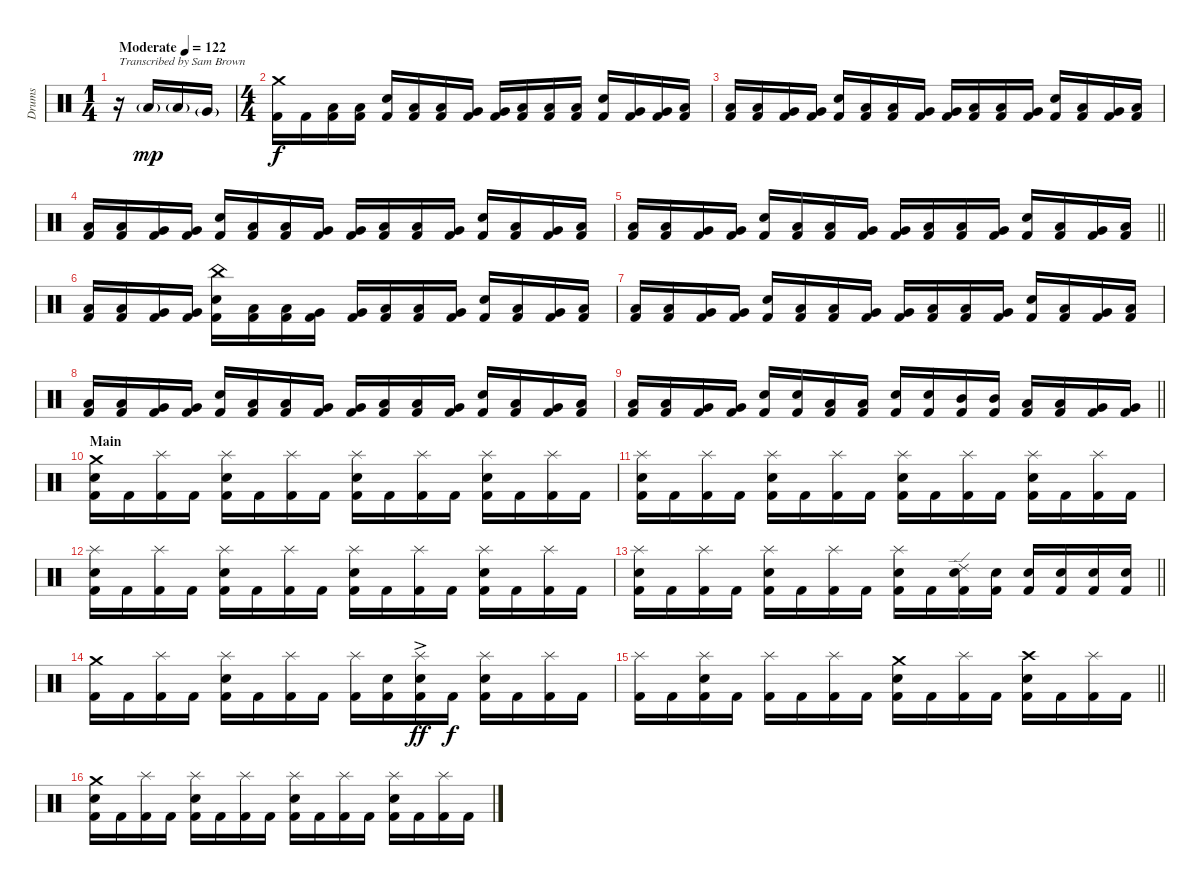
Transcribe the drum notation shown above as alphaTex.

\track ("Drums" "Drums") {instrument percussion}
\staff {score}
\articulation defaults
\ts (1 4)
\tempo (122 "Moderate")
\clef neutral
\ks c
r.16{txt "Transcribed by Sam Brown" dy mp} "Low Floor Tom (hit)"{g}.16 "Low Tom (hit)"{g}.16 "Very Low Tom (hit)"{g}.16 |
\ts (4 4)
("Kick (hit) 2" "Crash medium (hit)").16{dy f} "Kick (hit) 2".16 ("Kick (hit) 2" "Low Tom (hit)").16 ("Kick (hit) 2" "Low Tom (hit)").16 ("Kick (hit) 2" "Snare (hit) 2").16 ("Kick (hit) 2" "Low Tom (hit)").16 ("Kick (hit) 2" "Low Tom (hit)").16 ("Kick (hit) 2" "Very Low Tom (hit)").16 ("Kick (hit) 2" "Very Low Tom (hit)").16 ("Kick (hit) 2" "Low Tom (hit)").16 ("Kick (hit) 2" "Low Tom (hit)").16 ("Kick (hit) 2" "Low Tom (hit)").16 ("Kick (hit) 2" "Snare (hit) 2").16 ("Kick (hit) 2" "Very Low Tom (hit)").16 ("Kick (hit) 2" "Very Low Tom (hit)").16 ("Kick (hit) 2" "Low Floor Tom (hit)").16 |
("Kick (hit) 2" "Low Tom (hit)").16 ("Kick (hit) 2" "Low Tom (hit)").16 ("Kick (hit) 2" "Very Low Tom (hit)").16 ("Kick (hit) 2" "Very Low Tom (hit)").16 ("Kick (hit) 2" "Snare (hit) 2").16 ("Kick (hit) 2" "Low Tom (hit)").16 ("Kick (hit) 2" "Low Tom (hit)").16 ("Kick (hit) 2" "Very Low Tom (hit)").16 ("Kick (hit) 2" "Very Low Tom (hit)").16 ("Kick (hit) 2" "Low Tom (hit)").16 ("Kick (hit) 2" "Low Tom (hit)").16 ("Kick (hit) 2" "Very Low Tom (hit)").16 ("Kick (hit) 2" "Snare (hit) 2").16 ("Kick (hit) 2" "Low Tom (hit)").16 ("Kick (hit) 2" "Very Low Tom (hit)").16 ("Kick (hit) 2" "Low Floor Tom (hit)").16 |
("Kick (hit) 2" "Low Tom (hit)").16 ("Kick (hit) 2" "Low Tom (hit)").16 ("Kick (hit) 2" "Very Low Tom (hit)").16 ("Kick (hit) 2" "Very Low Tom (hit)").16 ("Kick (hit) 2" "Snare (hit) 2").16 ("Kick (hit) 2" "Low Tom (hit)").16 ("Kick (hit) 2" "Low Tom (hit)").16 ("Kick (hit) 2" "Very Low Tom (hit)").16 ("Kick (hit) 2" "Very Low Tom (hit)").16 ("Kick (hit) 2" "Low Tom (hit)").16 ("Kick (hit) 2" "Low Tom (hit)").16 ("Kick (hit) 2" "Very Low Tom (hit)").16 ("Kick (hit) 2" "Snare (hit) 2").16 ("Kick (hit) 2" "Low Tom (hit)").16 ("Kick (hit) 2" "Very Low Tom (hit)").16 ("Kick (hit) 2" "Low Floor Tom (hit)").16 |
\barLineRight lightlight
("Kick (hit) 2" "Low Tom (hit)").16 ("Kick (hit) 2" "Low Tom (hit)").16 ("Kick (hit) 2" "Very Low Tom (hit)").16 ("Kick (hit) 2" "Very Low Tom (hit)").16 ("Kick (hit) 2" "Snare (hit) 2").16 ("Kick (hit) 2" "Low Tom (hit)").16 ("Kick (hit) 2" "Low Tom (hit)").16 ("Kick (hit) 2" "Very Low Tom (hit)").16 ("Kick (hit) 2" "Very Low Tom (hit)").16 ("Kick (hit) 2" "Low Tom (hit)").16 ("Kick (hit) 2" "Low Tom (hit)").16 ("Kick (hit) 2" "Very Low Tom (hit)").16 ("Kick (hit) 2" "Snare (hit) 2").16 ("Kick (hit) 2" "Low Tom (hit)").16 ("Kick (hit) 2" "Very Low Tom (hit)").16 ("Kick (hit) 2" "Low Floor Tom (hit)").16 |
\section ("" "")
("Kick (hit) 2" "Low Tom (hit)").16 ("Kick (hit) 2" "Low Tom (hit)").16 ("Kick (hit) 2" "Very Low Tom (hit)").16 ("Kick (hit) 2" "Very Low Tom (hit)").16 ("Kick (hit) 2" "Snare (hit) 2" "China (hit)").16 ("Kick (hit) 2" "Low Tom (hit)").16 ("Kick (hit) 2" "Low Tom (hit)").16 ("Kick (hit) 2" "Very Low Tom (hit)").16 ("Kick (hit) 2" "Very Low Tom (hit)").16 ("Kick (hit) 2" "Low Tom (hit)").16 ("Kick (hit) 2" "Low Tom (hit)").16 ("Kick (hit) 2" "Very Low Tom (hit)").16 ("Kick (hit) 2" "Snare (hit) 2").16 ("Kick (hit) 2" "Low Tom (hit)").16 ("Kick (hit) 2" "Very Low Tom (hit)").16 ("Kick (hit) 2" "Low Floor Tom (hit)").16 |
("Kick (hit) 2" "Low Tom (hit)").16 ("Kick (hit) 2" "Low Tom (hit)").16 ("Kick (hit) 2" "Very Low Tom (hit)").16 ("Kick (hit) 2" "Very Low Tom (hit)").16 ("Kick (hit) 2" "Snare (hit) 2").16 ("Kick (hit) 2" "Low Tom (hit)").16 ("Kick (hit) 2" "Low Tom (hit)").16 ("Kick (hit) 2" "Very Low Tom (hit)").16 ("Kick (hit) 2" "Very Low Tom (hit)").16 ("Kick (hit) 2" "Low Tom (hit)").16 ("Kick (hit) 2" "Low Tom (hit)").16 ("Kick (hit) 2" "Very Low Tom (hit)").16 ("Kick (hit) 2" "Snare (hit) 2").16 ("Kick (hit) 2" "Low Tom (hit)").16 ("Kick (hit) 2" "Very Low Tom (hit)").16 ("Kick (hit) 2" "Low Floor Tom (hit)").16 |
("Kick (hit) 2" "Low Tom (hit)").16 ("Kick (hit) 2" "Low Tom (hit)").16 ("Kick (hit) 2" "Very Low Tom (hit)").16 ("Kick (hit) 2" "Very Low Tom (hit)").16 ("Kick (hit) 2" "Snare (hit) 2").16 ("Kick (hit) 2" "Low Tom (hit)").16 ("Kick (hit) 2" "Low Tom (hit)").16 ("Kick (hit) 2" "Very Low Tom (hit)").16 ("Kick (hit) 2" "Very Low Tom (hit)").16 ("Kick (hit) 2" "Low Tom (hit)").16 ("Kick (hit) 2" "Low Tom (hit)").16 ("Kick (hit) 2" "Very Low Tom (hit)").16 ("Kick (hit) 2" "Snare (hit) 2").16 ("Kick (hit) 2" "Low Tom (hit)").16 ("Kick (hit) 2" "Very Low Tom (hit)").16 ("Kick (hit) 2" "Low Floor Tom (hit)").16 |
\barLineRight lightlight
("Kick (hit) 2" "Low Tom (hit)").16 ("Kick (hit) 2" "Low Tom (hit)").16 ("Kick (hit) 2" "Very Low Tom (hit)").16 ("Kick (hit) 2" "Very Low Tom (hit)").16 ("Kick (hit) 2" "Snare (hit) 2").16 ("Kick (hit) 2" "Snare (hit) 2").16 ("Kick (hit) 2" "Low Floor Tom (hit)").16 ("Kick (hit) 2" "Low Floor Tom (hit)").16 ("Kick (hit) 2" "Snare (hit) 2").16 ("Kick (hit) 2" "Snare (hit) 2").16 ("Kick (hit) 2" "Mid Tom (hit)").16 ("Kick (hit) 2" "Mid Tom (hit)").16 ("Kick (hit) 2" "Low Tom (hit)").16 ("Kick (hit) 2" "Low Tom (hit)").16 ("Kick (hit) 2" "Very Low Tom (hit)").16 ("Kick (hit) 2" "Very Low Tom (hit)").16 |
\section ("" "Main")
("Kick (hit) 2" "Snare (hit) 2" "Crash medium (hit)").16 "Kick (hit) 2".16 ("Kick (hit) 2" "Splash (hit)").16 "Kick (hit) 2".16 ("Kick (hit) 2" "Snare (hit) 2" "Splash (hit)").16 "Kick (hit) 2".16 ("Kick (hit) 2" "Splash (hit)").16 "Kick (hit) 2".16 ("Kick (hit) 2" "Snare (hit) 2" "Splash (hit)").16 "Kick (hit) 2".16 ("Kick (hit) 2" "Splash (hit)").16 "Kick (hit) 2".16 ("Kick (hit) 2" "Snare (hit) 2" "Splash (hit)").16 "Kick (hit) 2".16 ("Kick (hit) 2" "Splash (hit)").16 "Kick (hit) 2".16 |
("Kick (hit) 2" "Snare (hit) 2" "Splash (hit)").16 "Kick (hit) 2".16 ("Kick (hit) 2" "Splash (hit)").16 "Kick (hit) 2".16 ("Kick (hit) 2" "Snare (hit) 2" "Splash (hit)").16 "Kick (hit) 2".16 ("Kick (hit) 2" "Splash (hit)").16 "Kick (hit) 2".16 ("Kick (hit) 2" "Snare (hit) 2" "Splash (hit)").16 "Kick (hit) 2".16 ("Kick (hit) 2" "Splash (hit)").16 "Kick (hit) 2".16 ("Kick (hit) 2" "Snare (hit) 2" "Splash (hit)").16 "Kick (hit) 2".16 ("Kick (hit) 2" "Splash (hit)").16 "Kick (hit) 2".16 |
("Kick (hit) 2" "Snare (hit) 2" "Splash (hit)").16 "Kick (hit) 2".16 ("Kick (hit) 2" "Splash (hit)").16 "Kick (hit) 2".16 ("Kick (hit) 2" "Snare (hit) 2" "Splash (hit)").16 "Kick (hit) 2".16 ("Kick (hit) 2" "Splash (hit)").16 "Kick (hit) 2".16 ("Kick (hit) 2" "Snare (hit) 2" "Splash (hit)").16 "Kick (hit) 2".16 ("Kick (hit) 2" "Splash (hit)").16 "Kick (hit) 2".16 ("Kick (hit) 2" "Snare (hit) 2" "Splash (hit)").16 "Kick (hit) 2".16 ("Kick (hit) 2" "Splash (hit)").16 "Kick (hit) 2".16 |
\barLineRight lightlight
("Kick (hit) 2" "Snare (hit) 2" "Splash (hit)").16 "Kick (hit) 2".16 ("Kick (hit) 2" "Splash (hit)").16 "Kick (hit) 2".16 ("Kick (hit) 2" "Snare (hit) 2" "Splash (hit)").16 "Kick (hit) 2".16 ("Kick (hit) 2" "Splash (hit)").16 "Kick (hit) 2".16 ("Kick (hit) 2" "Snare (hit) 2" "Splash (hit)").16 "Kick (hit) 2".16 ("Kick (hit) 2" "Snare (hit) 2" "Ride (edge) 2").16 ("Kick (hit) 2" "Snare (hit) 2").16 ("Kick (hit) 2" "Snare (hit) 2").16 ("Kick (hit) 2" "Snare (hit) 2").16 ("Kick (hit) 2" "Snare (hit) 2").16 ("Kick (hit) 2" "Snare (hit) 2").16 |
\section ("" "")
("Kick (hit) 2" "Crash medium (hit)").16 "Kick (hit) 2".16 ("Kick (hit) 2" "Splash (hit)").16 "Kick (hit) 2".16 ("Kick (hit) 2" "Snare (hit) 2" "Splash (hit)").16 "Kick (hit) 2".16 ("Kick (hit) 2" "Splash (hit)").16 "Kick (hit) 2".16 ("Kick (hit) 2" "Splash (hit)").16 ("Kick (hit) 2" "Snare (hit) 2").16 ("Kick (hit) 2" "Snare (hit) 2"{ac} "Splash (hit)").16{dy ff} "Kick (hit) 2".16{dy f} ("Kick (hit) 2" "Snare (hit) 2" "Splash (hit)").16 "Kick (hit) 2".16 ("Kick (hit) 2" "Splash (hit)").16 "Kick (hit) 2".16 |
\barLineRight lightlight
("Kick (hit) 2" "Splash (hit)").16 "Kick (hit) 2".16 ("Kick (hit) 2" "Snare (hit) 2" "Splash (hit)").16 "Kick (hit) 2".16 ("Kick (hit) 2" "Splash (hit)").16 "Kick (hit) 2".16 ("Kick (hit) 2" "Splash (hit)").16 "Kick (hit) 2".16 ("Kick (hit) 2" "Snare (hit) 2" "Crash medium (hit)").16 "Kick (hit) 2".16 ("Kick (hit) 2" "Splash (hit)").16 "Kick (hit) 2".16 ("Kick (hit) 2" "Snare (hit) 2" "Crash high (hit)").16 "Kick (hit) 2".16 ("Kick (hit) 2" "Splash (hit)").16 "Kick (hit) 2".16 |
\section ("" "")
("Kick (hit) 2" "Snare (hit) 2" "Crash medium (hit)").16 "Kick (hit) 2".16 ("Kick (hit) 2" "Splash (hit)").16 "Kick (hit) 2".16 ("Kick (hit) 2" "Snare (hit) 2" "Splash (hit)").16 "Kick (hit) 2".16 ("Kick (hit) 2" "Splash (hit)").16 "Kick (hit) 2".16 ("Kick (hit) 2" "Snare (hit) 2" "Splash (hit)").16 "Kick (hit) 2".16 ("Kick (hit) 2" "Splash (hit)").16 "Kick (hit) 2".16 ("Kick (hit) 2" "Snare (hit) 2" "Splash (hit)").16 "Kick (hit) 2".16 ("Kick (hit) 2" "Splash (hit)").16 "Kick (hit) 2".16
